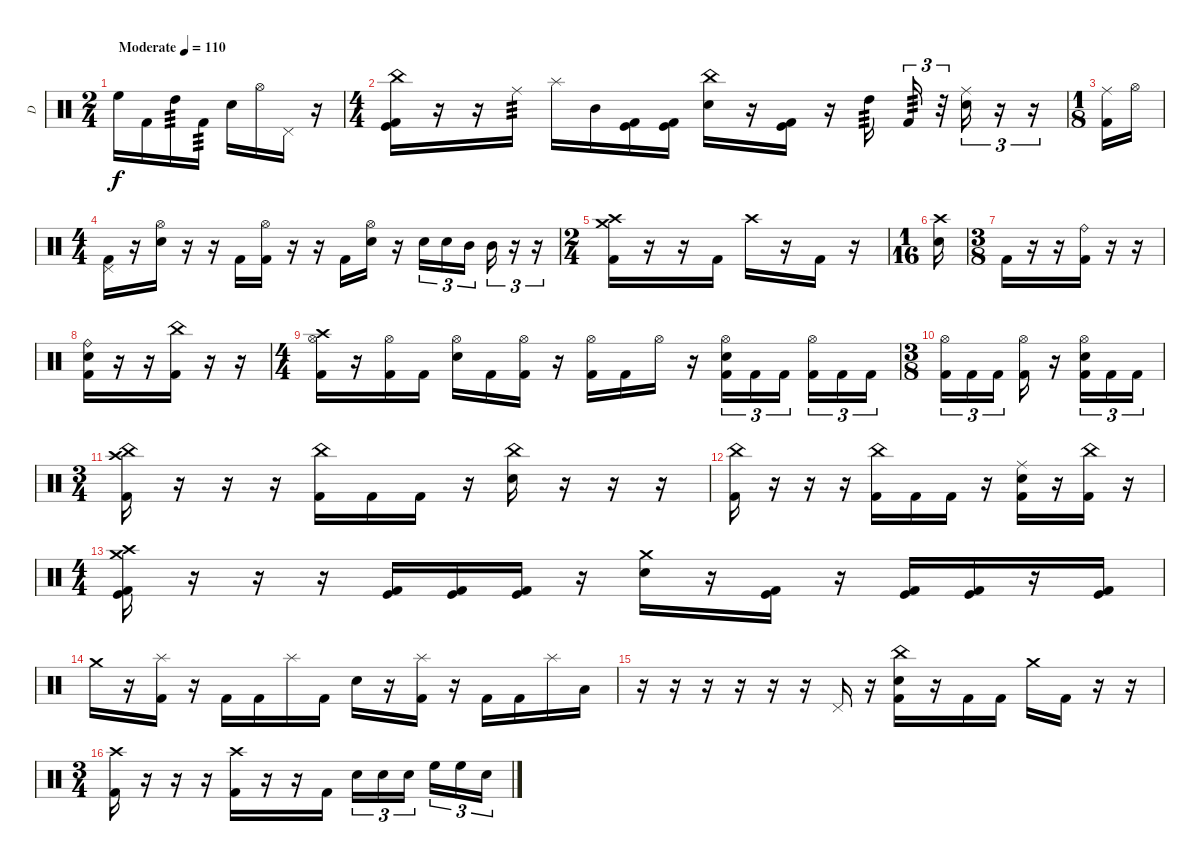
\track ("D" "D") {instrument percussion}
\staff {score}
\articulation defaults
\ts (2 4)
\tempo (110 "Moderate")
\clef neutral
\ks c "High Floor Tom (hit)".16{dy f} "Kick (hit) 2".16 "High Tom (hit)".16{tp 3} "Kick (hit) 2".16{tp 3} "Electric Snare (hit)".16 "Hi-Hat (open)".16 "Pedal Hi-Hat (hit)".16
r.16 |
\ts (4 4)
("China (hit)" "Kick (hit)" "Kick (hit) 2").16 r.16 r.16 "Ride (middle)".16{tp 3} "Splash (hit)".16 "Mid Tom (hit)".16 ("Kick (hit)" "Kick (hit) 2").16 ("Kick (hit)" "Kick (hit) 2").16 ("China (hit)" "Electric Snare (hit)").16 r.16 ("Kick (hit)" "Kick (hit) 2").16 r.16 "High Tom (hit)".16{tp 3} "Kick (hit) 2".16{tu (3 2) tp 3} r.32{tu (3 2)} ("Electric Snare (hit)" "Ride (middle)").16{tu (3 2)} r.16{tu (3 2)} r.16{tu (3 2)} |
\ts (1 8)
("Kick (hit) 2" "Ride (middle)").16 "Hi-Hat (open)".16 |
\ts (4 4)
("Pedal Hi-Hat (hit)" "Kick (hit) 2").16 r.16 ("Hi-Hat (open)" "Electric Snare (hit)").16 r.16 r.16 "Kick (hit) 2".16 ("Hi-Hat (open)" "Kick (hit) 2").16 r.16 r.16 "Kick (hit) 2".16 ("Hi-Hat (open)" "Electric Snare (hit)").16 r.16 "Electric Snare (hit)".16{tu (3 2)} "Electric Snare (hit)".16{tu (3 2)} "Mid Tom (hit)".16{tu (3 2) beam splitsecondary} "Mid Tom (hit)".16{tu (3 2)} r.16{tu (3 2)} r.16{tu (3 2)} |
\ts (2 4)
("Crash high (hit)" "Crash medium (hit)" "Kick (hit) 2").16 r.16 r.16 "Kick (hit) 2".16 "Crash high (hit)".16 r.16 "Kick (hit) 2".16 r.16 |
\ts (1 16)
("Crash high (hit)" "Electric Snare (hit)").16 |
\ts (3 8)
"Kick (hit) 2".16 r.16 r.16 ("Ride (bell)" "Kick (hit) 2").16 r.16 r.16 |
("Ride (bell)" "Electric Snare (hit)" "Kick (hit) 2").16 r.16 r.16 ("China (hit)" "Kick (hit) 2").16 r.16 r.16 |
\ts (4 4)
("Crash high (hit)" "Kick (hit) 2" "Hi-Hat (open)").16 r.16 ("Kick (hit) 2" "Hi-Hat (open)").16 "Kick (hit) 2".16 ("Hi-Hat (open)" "Electric Snare (hit)").16 "Kick (hit) 2".16 ("Kick (hit) 2" "Hi-Hat (open)").16 r.16 ("Kick (hit) 2" "Hi-Hat (open)").16 "Kick (hit) 2".16 "Hi-Hat (open)".16 r.16 ("Kick (hit) 2" "Hi-Hat (open)" "Electric Snare (hit)").16{tu (3 2)} "Kick (hit) 2".16{tu (3 2)} "Kick (hit) 2".16{tu (3 2) beam splitsecondary} ("Kick (hit) 2" "Hi-Hat (open)").16{tu (3 2)} "Kick (hit) 2".16{tu (3 2)} "Kick (hit) 2".16{tu (3 2)} |
\ts (3 8)
("Kick (hit) 2" "Hi-Hat (open)").16{tu (3 2)} "Kick (hit) 2".16{tu (3 2)} "Kick (hit) 2".16{tu (3 2)} ("Kick (hit) 2" "Hi-Hat (open)").16 r.16 ("Kick (hit) 2" "Electric Snare (hit)" "Hi-Hat (open)").16{tu (3 2)} "Kick (hit) 2".16{tu (3 2)} "Kick (hit) 2".16{tu (3 2)} |
\ts (3 4)
("China (hit)" "Crash high (hit)" "Kick (hit) 2").16{volume 16} r.16 r.16 r.16 ("China (hit)" "Kick (hit) 2").16 "Kick (hit) 2".16 "Kick (hit) 2".16 r.16 ("China (hit)" "Electric Snare (hit)").16 r.16 r.16 r.16 |
("China (hit)" "Kick (hit) 2").16 r.16 r.16 r.16 ("China (hit)" "Kick (hit) 2").16 "Kick (hit) 2".16 "Kick (hit) 2".16 r.16 ("Ride (middle)" "Electric Snare (hit)" "Kick (hit) 2").16 r.16 ("China (hit)" "Kick (hit) 2").16 r.16 |
\ts (4 4)
("Crash medium (hit)" "Crash high (hit)" "Kick (hit)" "Kick (hit) 2").16 r.16 r.16 r.16 ("Kick (hit)" "Kick (hit) 2").16 ("Kick (hit)" "Kick (hit) 2").16 ("Kick (hit)" "Kick (hit) 2").16 r.16 ("Crash medium (hit)" "Electric Snare (hit)").16 r.16 ("Kick (hit)" "Kick (hit) 2").16 r.16 ("Kick (hit)" "Kick (hit) 2").16 ("Kick (hit)" "Kick (hit) 2").16 r.16 ("Kick (hit)" "Kick (hit) 2").16 |
"Crash medium (hit)".16 r.16 ("Splash (hit)" "Kick (hit) 2").16 r.16 "Kick (hit) 2".16 "Kick (hit) 2".16 "Splash (hit)".16 "Kick (hit) 2".16 "Electric Snare (hit)".16 r.16 ("Splash (hit)" "Kick (hit) 2").16 r.16 "Kick (hit) 2".16 "Kick (hit) 2".16 "Splash (hit)".16 "Low Floor Tom (hit)".16 |
r.16{volume 0} r.16 r.16 r.16 r.16 r.16 "Pedal Hi-Hat (hit)".16{volume 16} r.16 ("China (hit)" "Electric Snare (hit)" "Kick (hit) 2").16{volume 16} r.16 "Kick (hit) 2".16 "Kick (hit) 2".16 "Crash medium (hit)".16 "Kick (hit) 2".16 r.16 r.16 |
\ts (3 4)
("Crash high (hit)" "Kick (hit) 2").16 r.16 r.16 r.16 ("Crash high (hit)" "Kick (hit) 2").16 r.16 r.16 "Kick (hit) 2".16 "Electric Snare (hit)".16{tu (3 2)} "Electric Snare (hit)".16{tu (3 2)} "Electric Snare (hit)".16{tu (3 2) beam splitsecondary} "High Floor Tom (hit)".16{tu (3 2)} "High Floor Tom (hit)".16{tu (3 2)} "Electric Snare (hit)".16{tu (3 2)}
